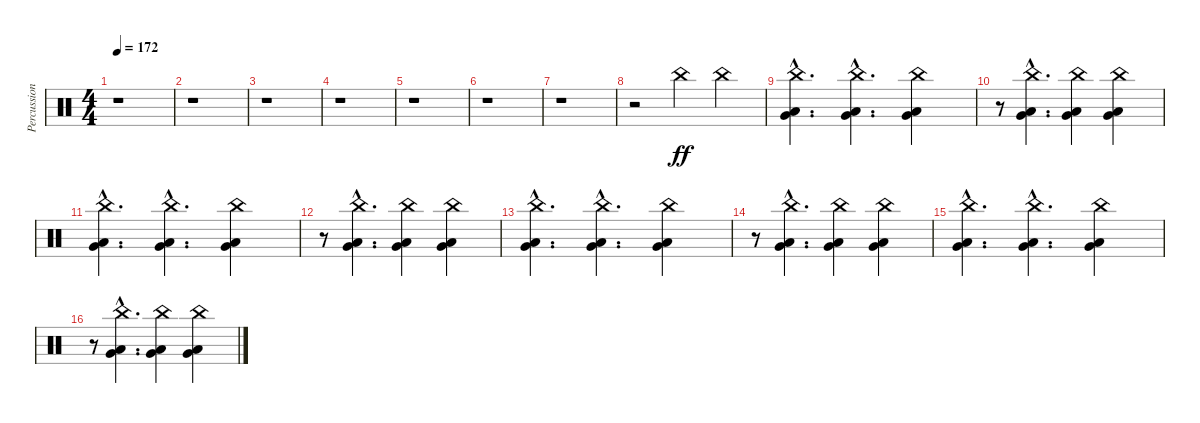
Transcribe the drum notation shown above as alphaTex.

\track ("Percussion / Drum Fills" "Percussion") {instrument percussion}
\staff {score}
\articulation defaults
\ts (4 4)
\tempo 172
\clef neutral
\ks c
r.1{dy ff} |
r.1 |
r.1 |
r.1 |
r.1 |
r.1 |
r.1 |
r.2 "China (hit)".4 "China (hit)".4 |
("China (hit)"{hac} "Very Low Tom (hit)"{hac} "Low Floor Tom (hit)"{hac}).4{d} ("China (hit)"{hac} "Very Low Tom (hit)"{hac} "Low Floor Tom (hit)"{hac}).4{d} ("China (hit)" "Very Low Tom (hit)" "Low Floor Tom (hit)").4 |
r.8 ("China (hit)"{hac} "Very Low Tom (hit)"{hac} "Low Floor Tom (hit)"{hac}).4{d} ("China (hit)" "Very Low Tom (hit)" "Low Floor Tom (hit)").4 ("China (hit)" "Very Low Tom (hit)" "Low Floor Tom (hit)").4 |
("China (hit)"{hac} "Very Low Tom (hit)"{hac} "Low Floor Tom (hit)"{hac}).4{d} ("China (hit)"{hac} "Very Low Tom (hit)"{hac} "Low Floor Tom (hit)"{hac}).4{d} ("China (hit)" "Very Low Tom (hit)" "Low Floor Tom (hit)").4 |
r.8 ("China (hit)"{hac} "Very Low Tom (hit)"{hac} "Low Floor Tom (hit)"{hac}).4{d} ("China (hit)" "Very Low Tom (hit)" "Low Floor Tom (hit)").4 ("China (hit)" "Very Low Tom (hit)" "Low Floor Tom (hit)").4 |
("China (hit)"{hac} "Very Low Tom (hit)"{hac} "Low Floor Tom (hit)"{hac}).4{d} ("China (hit)"{hac} "Very Low Tom (hit)"{hac} "Low Floor Tom (hit)"{hac}).4{d} ("China (hit)" "Very Low Tom (hit)" "Low Floor Tom (hit)").4 |
r.8 ("China (hit)"{hac} "Very Low Tom (hit)"{hac} "Low Floor Tom (hit)"{hac}).4{d} ("China (hit)" "Very Low Tom (hit)" "Low Floor Tom (hit)").4 ("China (hit)" "Very Low Tom (hit)" "Low Floor Tom (hit)").4 |
("China (hit)"{hac} "Very Low Tom (hit)"{hac} "Low Floor Tom (hit)"{hac}).4{d} ("China (hit)"{hac} "Very Low Tom (hit)"{hac} "Low Floor Tom (hit)"{hac}).4{d} ("China (hit)" "Very Low Tom (hit)" "Low Floor Tom (hit)").4 |
r.8 ("China (hit)"{hac} "Very Low Tom (hit)"{hac} "Low Floor Tom (hit)"{hac}).4{d} ("China (hit)" "Very Low Tom (hit)" "Low Floor Tom (hit)").4 ("China (hit)" "Very Low Tom (hit)" "Low Floor Tom (hit)").4
